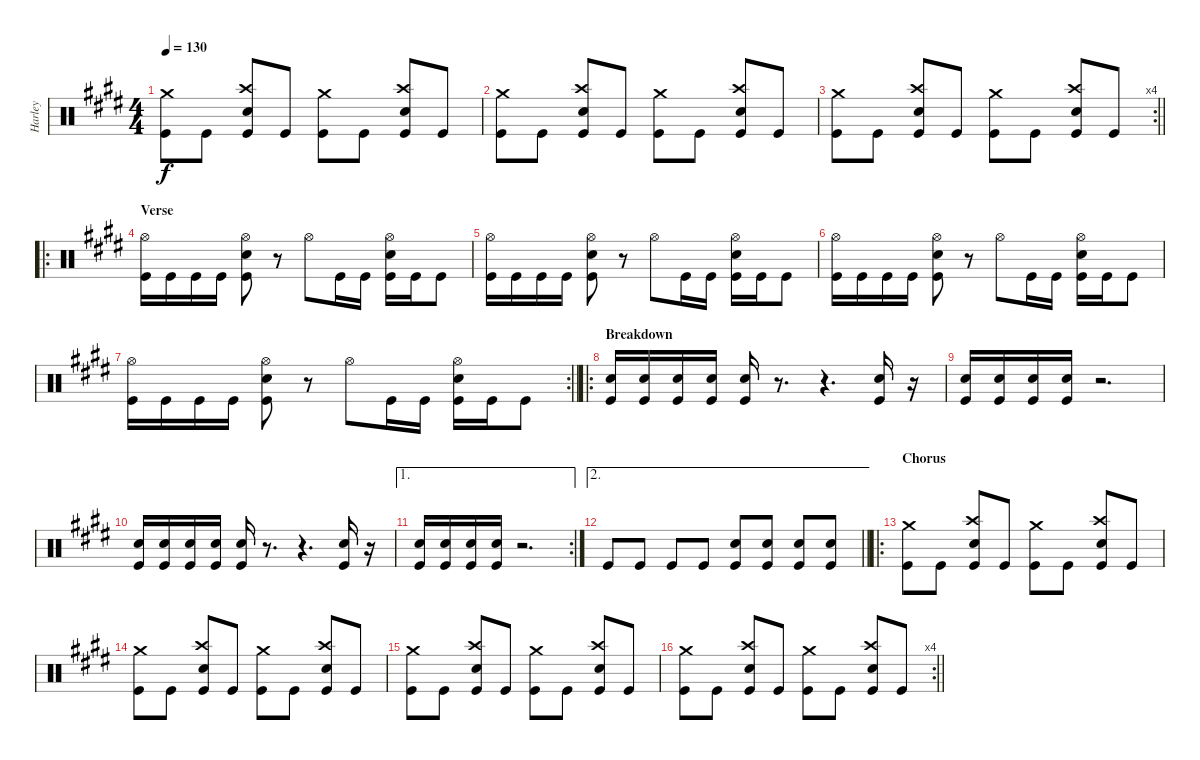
\track ("Harley" "Harley") {instrument percussion}
\staff {score}
\articulation defaults
\ts (4 4)
\tempo 130
\clef neutral
\ks c#minor
("Crash medium (hit)" "Kick (hit)").8{dy f} "Kick (hit)".8 ("Crash high (hit)" "Snare (hit) 2" "Kick (hit)").8 "Kick (hit)".8 ("Crash medium (hit)" "Kick (hit)").8 "Kick (hit)".8 ("Crash high (hit)" "Snare (hit) 2" "Kick (hit)").8 "Kick (hit)".8 |
("Crash medium (hit)" "Kick (hit)").8 "Kick (hit)".8 ("Crash high (hit)" "Snare (hit) 2" "Kick (hit)").8 "Kick (hit)".8 ("Crash medium (hit)" "Kick (hit)").8 "Kick (hit)".8 ("Crash high (hit)" "Snare (hit) 2" "Kick (hit)").8 "Kick (hit)".8 |
\rc 4
\barLineRight lightlight
("Crash medium (hit)" "Kick (hit)").8 "Kick (hit)".8 ("Crash high (hit)" "Snare (hit) 2" "Kick (hit)").8 "Kick (hit)".8 ("Crash medium (hit)" "Kick (hit)").8 "Kick (hit)".8 ("Crash high (hit)" "Snare (hit) 2" "Kick (hit)").8 "Kick (hit)".8 |
\ro
\section ("" "Verse")
("Hi-Hat (open)" "Kick (hit)").16 "Kick (hit)".16 "Kick (hit)".16 "Kick (hit)".16 ("Hi-Hat (open)" "Snare (hit) 2" "Kick (hit)").8 r.8 "Hi-Hat (open)".8 "Kick (hit)".16 "Kick (hit)".16 ("Hi-Hat (open)" "Snare (hit) 2" "Kick (hit)").16 "Kick (hit)".16 "Kick (hit)".8 |
("Hi-Hat (open)" "Kick (hit)").16 "Kick (hit)".16 "Kick (hit)".16 "Kick (hit)".16 ("Hi-Hat (open)" "Snare (hit) 2" "Kick (hit)").8 r.8 "Hi-Hat (open)".8 "Kick (hit)".16 "Kick (hit)".16 ("Hi-Hat (open)" "Snare (hit) 2" "Kick (hit)").16 "Kick (hit)".16 "Kick (hit)".8 |
("Hi-Hat (open)" "Kick (hit)").16 "Kick (hit)".16 "Kick (hit)".16 "Kick (hit)".16 ("Hi-Hat (open)" "Snare (hit) 2" "Kick (hit)").8 r.8 "Hi-Hat (open)".8 "Kick (hit)".16 "Kick (hit)".16 ("Hi-Hat (open)" "Snare (hit) 2" "Kick (hit)").16 "Kick (hit)".16 "Kick (hit)".8 |
\rc 2
\barLineRight lightlight
("Hi-Hat (open)" "Kick (hit)").16 "Kick (hit)".16 "Kick (hit)".16 "Kick (hit)".16 ("Hi-Hat (open)" "Snare (hit) 2" "Kick (hit)").8 r.8 "Hi-Hat (open)".8 "Kick (hit)".16 "Kick (hit)".16 ("Hi-Hat (open)" "Snare (hit) 2" "Kick (hit)").16 "Kick (hit)".16 "Kick (hit)".8 |
\ro
\section ("" "Breakdown")
("Snare (hit) 2" "Kick (hit)").16 ("Snare (hit) 2" "Kick (hit)").16 ("Snare (hit) 2" "Kick (hit)").16 ("Snare (hit) 2" "Kick (hit)").16 ("Snare (hit) 2" "Kick (hit)").16 r.8{d} r.4{d} ("Snare (hit) 2" "Kick (hit)").16 r.16 |
("Snare (hit) 2" "Kick (hit)").16 ("Snare (hit) 2" "Kick (hit)").16 ("Snare (hit) 2" "Kick (hit)").16 ("Snare (hit) 2" "Kick (hit)").16 r.2{d} |
("Snare (hit) 2" "Kick (hit)").16 ("Snare (hit) 2" "Kick (hit)").16 ("Snare (hit) 2" "Kick (hit)").16 ("Snare (hit) 2" "Kick (hit)").16 ("Snare (hit) 2" "Kick (hit)").16 r.8{d} r.4{d} ("Snare (hit) 2" "Kick (hit)").16 r.16 |
\ae 1
\rc 2
("Snare (hit) 2" "Kick (hit)").16 ("Snare (hit) 2" "Kick (hit)").16 ("Snare (hit) 2" "Kick (hit)").16 ("Snare (hit) 2" "Kick (hit)").16 r.2{d} |
\ae 2
\barLineRight lightlight "Kick (hit)".8 "Kick (hit)".8 "Kick (hit)".8 "Kick (hit)".8
("Snare (hit) 2" "Kick (hit)").8 ("Snare (hit) 2" "Kick (hit)").8 ("Snare (hit) 2" "Kick (hit)").8 ("Snare (hit) 2" "Kick (hit)").8 |
\ro
\section ("" "Chorus")
("Crash medium (hit)" "Kick (hit)").8 "Kick (hit)".8 ("Crash high (hit)" "Snare (hit) 2" "Kick (hit)").8 "Kick (hit)".8 ("Crash medium (hit)" "Kick (hit)").8 "Kick (hit)".8 ("Crash high (hit)" "Snare (hit) 2" "Kick (hit)").8 "Kick (hit)".8 |
("Crash medium (hit)" "Kick (hit)").8 "Kick (hit)".8 ("Crash high (hit)" "Snare (hit) 2" "Kick (hit)").8 "Kick (hit)".8 ("Crash medium (hit)" "Kick (hit)").8 "Kick (hit)".8 ("Crash high (hit)" "Snare (hit) 2" "Kick (hit)").8 "Kick (hit)".8 |
("Crash medium (hit)" "Kick (hit)").8 "Kick (hit)".8 ("Crash high (hit)" "Snare (hit) 2" "Kick (hit)").8 "Kick (hit)".8 ("Crash medium (hit)" "Kick (hit)").8 "Kick (hit)".8 ("Crash high (hit)" "Snare (hit) 2" "Kick (hit)").8 "Kick (hit)".8 |
\rc 4
\barLineRight lightlight
("Crash medium (hit)" "Kick (hit)").8 "Kick (hit)".8 ("Crash high (hit)" "Snare (hit) 2" "Kick (hit)").8 "Kick (hit)".8 ("Crash medium (hit)" "Kick (hit)").8 "Kick (hit)".8 ("Crash high (hit)" "Snare (hit) 2" "Kick (hit)").8 "Kick (hit)".8
